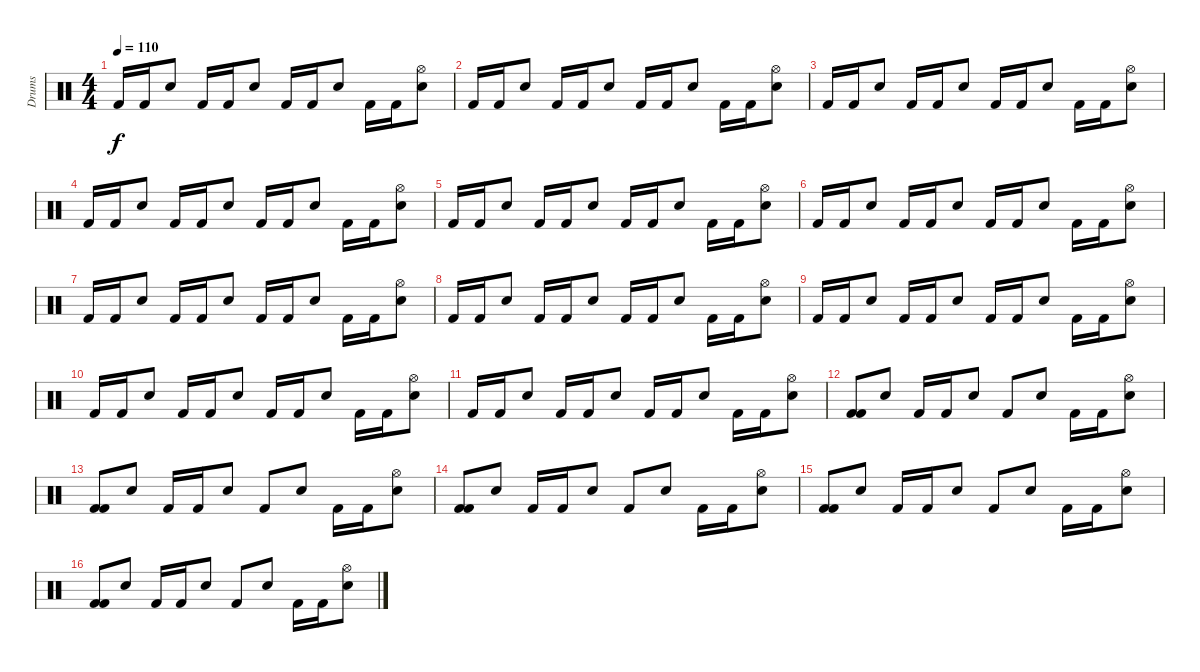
\track ("Drums" "Drums") {instrument percussion}
\staff {score}
\articulation defaults
\ts (4 4)
\tempo 110
\clef neutral
\ks c "Kick (hit) 2".16{dy f} "Kick (hit) 2".16 "Snare (hit) 2".8 "Kick (hit) 2".16 "Kick (hit) 2".16 "Snare (hit) 2".8 "Kick (hit) 2".16 "Kick (hit) 2".16 "Snare (hit) 2".8 "Kick (hit) 2".16 "Kick (hit) 2".16
("Snare (hit) 2" "Hi-Hat (open)").8 |
"Kick (hit) 2".16 "Kick (hit) 2".16 "Snare (hit) 2".8 "Kick (hit) 2".16 "Kick (hit) 2".16 "Snare (hit) 2".8 "Kick (hit) 2".16 "Kick (hit) 2".16 "Snare (hit) 2".8 "Kick (hit) 2".16 "Kick (hit) 2".16 ("Snare (hit) 2" "Hi-Hat (open)").8 |
"Kick (hit) 2".16 "Kick (hit) 2".16 "Snare (hit) 2".8 "Kick (hit) 2".16 "Kick (hit) 2".16 "Snare (hit) 2".8 "Kick (hit) 2".16 "Kick (hit) 2".16 "Snare (hit) 2".8 "Kick (hit) 2".16 "Kick (hit) 2".16 ("Snare (hit) 2" "Hi-Hat (open)").8 |
"Kick (hit) 2".16 "Kick (hit) 2".16 "Snare (hit) 2".8 "Kick (hit) 2".16 "Kick (hit) 2".16 "Snare (hit) 2".8 "Kick (hit) 2".16 "Kick (hit) 2".16 "Snare (hit) 2".8 "Kick (hit) 2".16 "Kick (hit) 2".16 ("Snare (hit) 2" "Hi-Hat (open)").8 |
"Kick (hit) 2".16 "Kick (hit) 2".16 "Snare (hit) 2".8 "Kick (hit) 2".16 "Kick (hit) 2".16 "Snare (hit) 2".8 "Kick (hit) 2".16 "Kick (hit) 2".16 "Snare (hit) 2".8 "Kick (hit) 2".16 "Kick (hit) 2".16 ("Snare (hit) 2" "Hi-Hat (open)").8 |
"Kick (hit) 2".16 "Kick (hit) 2".16 "Snare (hit) 2".8 "Kick (hit) 2".16 "Kick (hit) 2".16 "Snare (hit) 2".8 "Kick (hit) 2".16 "Kick (hit) 2".16 "Snare (hit) 2".8 "Kick (hit) 2".16 "Kick (hit) 2".16 ("Snare (hit) 2" "Hi-Hat (open)").8 |
"Kick (hit) 2".16 "Kick (hit) 2".16 "Snare (hit) 2".8 "Kick (hit) 2".16 "Kick (hit) 2".16 "Snare (hit) 2".8 "Kick (hit) 2".16 "Kick (hit) 2".16 "Snare (hit) 2".8 "Kick (hit) 2".16 "Kick (hit) 2".16 ("Snare (hit) 2" "Hi-Hat (open)").8 |
"Kick (hit) 2".16 "Kick (hit) 2".16 "Snare (hit) 2".8 "Kick (hit) 2".16 "Kick (hit) 2".16 "Snare (hit) 2".8 "Kick (hit) 2".16 "Kick (hit) 2".16 "Snare (hit) 2".8 "Kick (hit) 2".16 "Kick (hit) 2".16 ("Snare (hit) 2" "Hi-Hat (open)").8 |
"Kick (hit) 2".16 "Kick (hit) 2".16 "Snare (hit) 2".8 "Kick (hit) 2".16 "Kick (hit) 2".16 "Snare (hit) 2".8 "Kick (hit) 2".16 "Kick (hit) 2".16 "Snare (hit) 2".8 "Kick (hit) 2".16 "Kick (hit) 2".16 ("Snare (hit) 2" "Hi-Hat (open)").8 |
"Kick (hit) 2".16 "Kick (hit) 2".16 "Snare (hit) 2".8 "Kick (hit) 2".16 "Kick (hit) 2".16 "Snare (hit) 2".8 "Kick (hit) 2".16 "Kick (hit) 2".16 "Snare (hit) 2".8 "Kick (hit) 2".16 "Kick (hit) 2".16 ("Snare (hit) 2" "Hi-Hat (open)").8 |
"Kick (hit) 2".16 "Kick (hit) 2".16 "Snare (hit) 2".8 "Kick (hit) 2".16 "Kick (hit) 2".16 "Snare (hit) 2".8 "Kick (hit) 2".16 "Kick (hit) 2".16 "Snare (hit) 2".8 "Kick (hit) 2".16 "Kick (hit) 2".16 ("Snare (hit) 2" "Hi-Hat (open)").8 |
("Kick (hit) 2" "Kick (hit) 2").8 "Snare (hit) 2".8 "Kick (hit) 2".16 "Kick (hit) 2".16 "Snare (hit) 2".8 "Kick (hit) 2".8 "Snare (hit) 2".8 "Kick (hit) 2".16 "Kick (hit) 2".16 ("Snare (hit) 2" "Hi-Hat (open)").8 |
("Kick (hit) 2" "Kick (hit) 2").8 "Snare (hit) 2".8 "Kick (hit) 2".16 "Kick (hit) 2".16 "Snare (hit) 2".8 "Kick (hit) 2".8 "Snare (hit) 2".8 "Kick (hit) 2".16 "Kick (hit) 2".16 ("Snare (hit) 2" "Hi-Hat (open)").8 |
("Kick (hit) 2" "Kick (hit) 2").8 "Snare (hit) 2".8 "Kick (hit) 2".16 "Kick (hit) 2".16 "Snare (hit) 2".8 "Kick (hit) 2".8 "Snare (hit) 2".8 "Kick (hit) 2".16 "Kick (hit) 2".16 ("Snare (hit) 2" "Hi-Hat (open)").8 |
("Kick (hit) 2" "Kick (hit) 2").8 "Snare (hit) 2".8 "Kick (hit) 2".16 "Kick (hit) 2".16 "Snare (hit) 2".8 "Kick (hit) 2".8 "Snare (hit) 2".8 "Kick (hit) 2".16 "Kick (hit) 2".16 ("Snare (hit) 2" "Hi-Hat (open)").8 |
("Kick (hit) 2" "Kick (hit) 2").8 "Snare (hit) 2".8 "Kick (hit) 2".16 "Kick (hit) 2".16 "Snare (hit) 2".8 "Kick (hit) 2".8 "Snare (hit) 2".8 "Kick (hit) 2".16 "Kick (hit) 2".16 ("Snare (hit) 2" "Hi-Hat (open)").8
